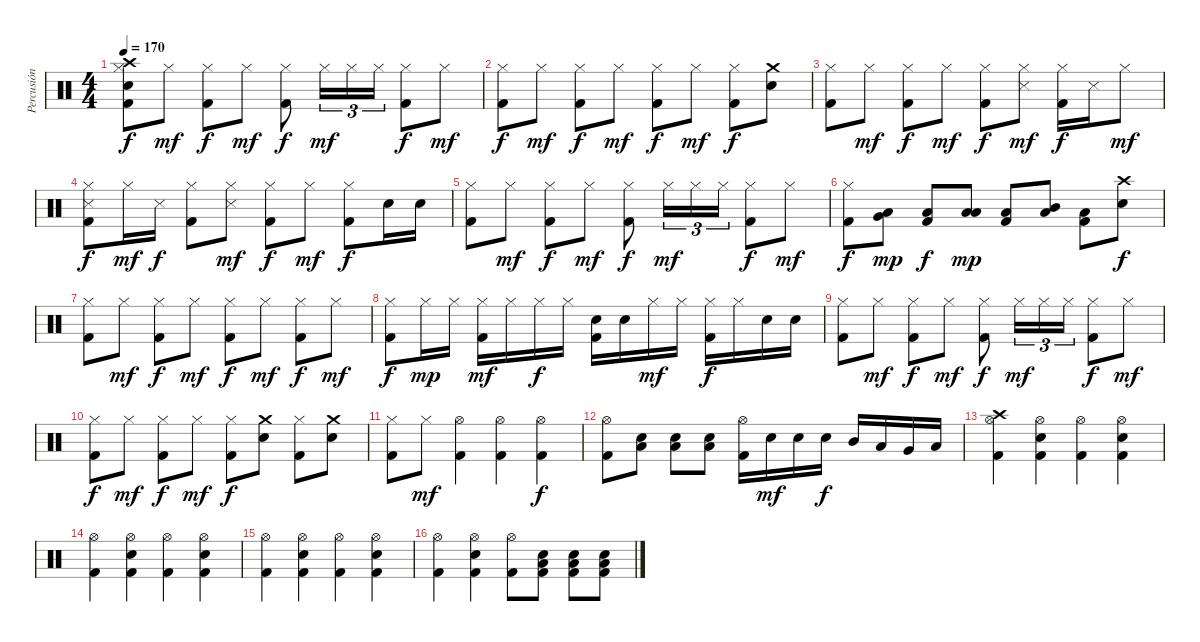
\track ("Percusión" "Percusión") {instrument percussion}
\staff {score}
\articulation defaults
\ts (4 4)
\tempo 170
\clef neutral
\ks c
("Crash high (hit)" "Hi-Hat (closed)" "Electric Snare (hit)" "Kick (hit) 2").8{dy f} "Hi-Hat (closed)".8{dy mf} ("Hi-Hat (closed)" "Kick (hit) 2").8{dy f} "Hi-Hat (closed)".8{dy mf} ("Hi-Hat (closed)" "Kick (hit) 2").8{dy f} "Hi-Hat (closed)".16{tu (3 2) dy mf} "Hi-Hat (closed)".16{tu (3 2)} "Hi-Hat (closed)".16{tu (3 2)} ("Hi-Hat (closed)" "Kick (hit) 2").8{dy f} "Hi-Hat (closed)".8{dy mf} |
("Hi-Hat (closed)" "Kick (hit) 2").8{dy f} "Hi-Hat (closed)".8{dy mf} ("Hi-Hat (closed)" "Kick (hit) 2").8{dy f} "Hi-Hat (closed)".8{dy mf} ("Hi-Hat (closed)" "Kick (hit) 2").8{dy f} "Hi-Hat (closed)".8{dy mf} ("Hi-Hat (closed)" "Kick (hit) 2").8{dy f} ("Crash medium (hit)" "Electric Snare (hit)").8 |
("Hi-Hat (closed)" "Kick (hit) 2").8 "Hi-Hat (closed)".8{dy mf} ("Hi-Hat (closed)" "Kick (hit) 2").8{dy f} "Hi-Hat (closed)".8{dy mf} ("Hi-Hat (closed)" "Kick (hit) 2").8{dy f} ("Hi-Hat (closed)" "Snare (side stick) 3").8{dy mf} ("Hi-Hat (closed)" "Kick (hit) 2").16{dy f} "Snare (side stick) 3".16 "Hi-Hat (closed)".8{dy mf} |
("Hi-Hat (closed)" "Kick (hit) 2" "Snare (side stick) 3").8{dy f} "Hi-Hat (closed)".16{dy mf} "Snare (side stick) 3".16{dy f} ("Hi-Hat (closed)" "Kick (hit) 2").8 ("Hi-Hat (closed)" "Snare (side stick) 3").8{dy mf} ("Hi-Hat (closed)" "Kick (hit) 2").8{dy f} "Hi-Hat (closed)".8{dy mf} ("Hi-Hat (closed)" "Kick (hit) 2").8{dy f} "Electric Snare (hit)".16 "Electric Snare (hit)".16 |
("Hi-Hat (closed)" "Kick (hit) 2").8 "Hi-Hat (closed)".8{dy mf} ("Hi-Hat (closed)" "Kick (hit) 2").8{dy f} "Hi-Hat (closed)".8{dy mf} ("Hi-Hat (closed)" "Kick (hit) 2").8{dy f} "Hi-Hat (closed)".16{tu (3 2) dy mf} "Hi-Hat (closed)".16{tu (3 2)} "Hi-Hat (closed)".16{tu (3 2)} ("Hi-Hat (closed)" "Kick (hit) 2").8{dy f} "Hi-Hat (closed)".8{dy mf} |
("Hi-Hat (closed)" "Kick (hit) 2").8{dy f} ("Low Floor Tom (hit)" "Very Low Tom (hit)").8{dy mp} ("Low Floor Tom (hit)" "Kick (hit) 2").8{dy f} ("Low Floor Tom (hit)" "Low Tom (hit)").8{dy mp} ("Low Floor Tom (hit)" "Kick (hit) 2").8 ("Low Floor Tom (hit)" "Mid Tom (hit)").8 ("Low Floor Tom (hit)" "Kick (hit) 2").8 ("Crash high (hit)" "Electric Snare (hit)").8{dy f} |
("Hi-Hat (closed)" "Kick (hit) 2").8 "Hi-Hat (closed)".8{dy mf} ("Hi-Hat (closed)" "Kick (hit) 2").8{dy f} "Hi-Hat (closed)".8{dy mf} ("Hi-Hat (closed)" "Kick (hit) 2").8{dy f} "Hi-Hat (closed)".8{dy mf} ("Hi-Hat (closed)" "Kick (hit) 2").8{dy f} "Hi-Hat (closed)".8{dy mf} |
("Hi-Hat (closed)" "Kick (hit) 2").8{dy f} "Hi-Hat (closed)".16{dy mp} "Hi-Hat (closed)".16 ("Hi-Hat (closed)" "Kick (hit) 2").16{dy mf} "Hi-Hat (closed)".16 "Hi-Hat (closed)".16{dy f} "Hi-Hat (closed)".16 ("Electric Snare (hit)" "Kick (hit) 2").16 "Electric Snare (hit)".16 "Hi-Hat (closed)".16{dy mf} "Hi-Hat (closed)".16 ("Hi-Hat (closed)" "Kick (hit) 2").16{dy f} "Hi-Hat (closed)".16 "Electric Snare (hit)".16 "Electric Snare (hit)".16 |
("Hi-Hat (closed)" "Kick (hit) 2").8 "Hi-Hat (closed)".8{dy mf} ("Hi-Hat (closed)" "Kick (hit) 2").8{dy f} "Hi-Hat (closed)".8{dy mf} ("Hi-Hat (closed)" "Kick (hit) 2").8{dy f} "Hi-Hat (closed)".16{tu (3 2) dy mf} "Hi-Hat (closed)".16{tu (3 2)} "Hi-Hat (closed)".16{tu (3 2)} ("Hi-Hat (closed)" "Kick (hit) 2").8{dy f} "Hi-Hat (closed)".8{dy mf} |
("Hi-Hat (closed)" "Kick (hit) 2").8{dy f} "Hi-Hat (closed)".8{dy mf} ("Hi-Hat (closed)" "Kick (hit) 2").8{dy f} "Hi-Hat (closed)".8{dy mf} ("Hi-Hat (closed)" "Kick (hit) 2").8{dy f} ("Crash medium (hit)" "Electric Snare (hit)").8 ("Hi-Hat (closed)" "Kick (hit) 2").8 ("Crash medium (hit)" "Electric Snare (hit)").8 |
("Hi-Hat (closed)" "Kick (hit) 2").8 "Hi-Hat (closed)".8{dy mf} ("Hi-Hat (open)" "Kick (hit) 2").4 ("Hi-Hat (open)" "Kick (hit) 2").4 ("Hi-Hat (open)" "Kick (hit) 2").4{dy f} |
("Hi-Hat (open)" "Kick (hit) 2").8 ("Low Floor Tom (hit)" "Electric Snare (hit)").8 ("Low Floor Tom (hit)" "Electric Snare (hit)").8 ("Low Floor Tom (hit)" "Electric Snare (hit)").8 ("Hi-Hat (open)" "Kick (hit) 2").16 "Electric Snare (hit)".16{dy mf} "Electric Snare (hit)".16 "Electric Snare (hit)".16{dy f} "Mid Tom (hit)".16 "Low Tom (hit)".16 "Very Low Tom (hit)".16 "Low Floor Tom (hit)".16 |
("Crash high (hit)" "Hi-Hat (open)" "Kick (hit) 2").4 ("Hi-Hat (open)" "Electric Snare (hit)" "Kick (hit) 2").4 ("Hi-Hat (open)" "Kick (hit) 2").4 ("Hi-Hat (open)" "Electric Snare (hit)" "Kick (hit) 2").4 |
("Hi-Hat (open)" "Kick (hit) 2").4 ("Hi-Hat (open)" "Electric Snare (hit)" "Kick (hit) 2").4 ("Hi-Hat (open)" "Kick (hit) 2").4 ("Hi-Hat (open)" "Electric Snare (hit)" "Kick (hit) 2").4 |
("Hi-Hat (open)" "Kick (hit) 2").4 ("Hi-Hat (open)" "Electric Snare (hit)" "Kick (hit) 2").4 ("Hi-Hat (open)" "Kick (hit) 2").4 ("Hi-Hat (open)" "Electric Snare (hit)" "Kick (hit) 2").4 |
("Hi-Hat (open)" "Kick (hit) 2").4 ("Hi-Hat (open)" "Electric Snare (hit)" "Kick (hit) 2").4 ("Hi-Hat (open)" "Kick (hit) 2").8 ("Electric Snare (hit)" "Low Tom (hit)" "Kick (hit) 2").8 ("Electric Snare (hit)" "Low Tom (hit)" "Kick (hit) 2").8 ("Electric Snare (hit)" "Low Tom (hit)" "Kick (hit) 2").8
